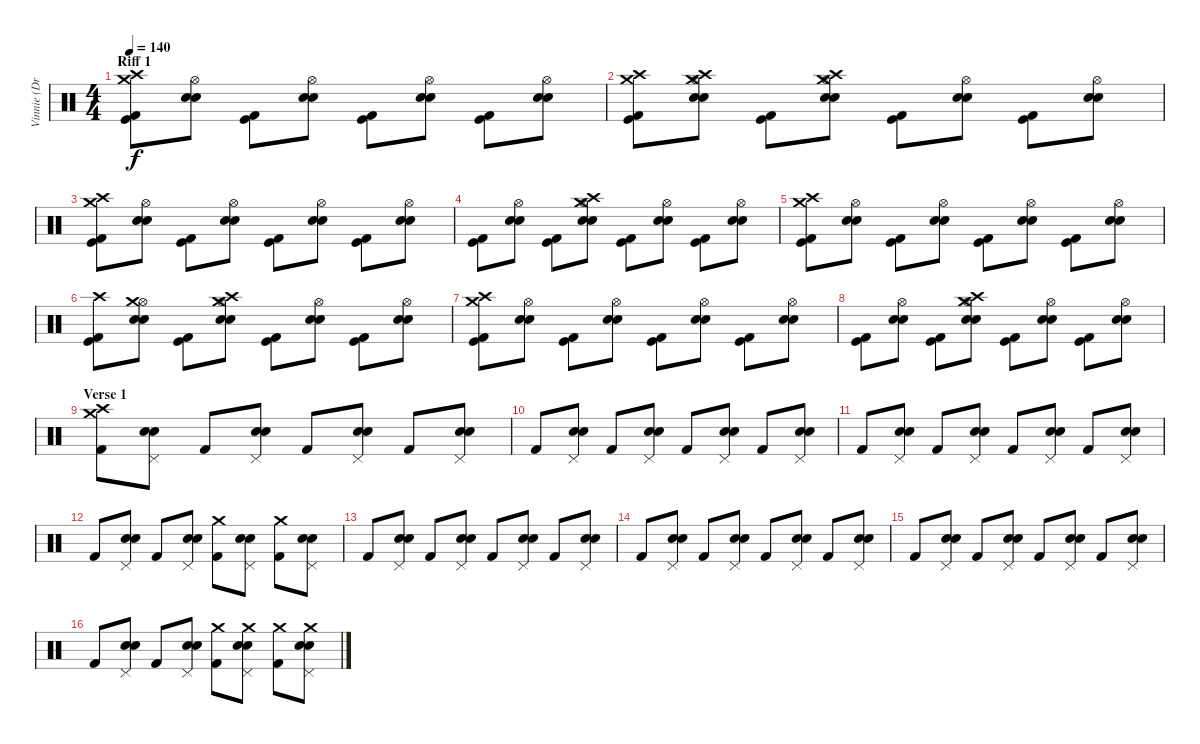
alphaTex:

\track ("Vinnie (Drums)" "Vinnie (Dr") {instrument percussion}
\staff {score}
\articulation defaults
\ts (4 4)
\section ("" "Riff 1")
\tempo 140
\clef neutral
\ks c
("Kick (hit) 2" "Kick (hit)" "Crash medium (hit)" "Crash high (hit)").8{dy f} ("Snare (hit) 2" "Electric Snare (hit)" "Hi-Hat (open)").8 ("Kick (hit) 2" "Kick (hit)").8 ("Snare (hit) 2" "Electric Snare (hit)" "Hi-Hat (open)").8 ("Kick (hit) 2" "Kick (hit)").8 ("Snare (hit) 2" "Electric Snare (hit)" "Hi-Hat (open)").8 ("Kick (hit) 2" "Kick (hit)").8 ("Snare (hit) 2" "Electric Snare (hit)" "Hi-Hat (open)").8 |
("Kick (hit) 2" "Kick (hit)" "Crash medium (hit)" "Crash high (hit)").8 ("Snare (hit) 2" "Electric Snare (hit)" "Hi-Hat (open)" "Crash high (hit)" "Crash medium (hit)").8 ("Kick (hit) 2" "Kick (hit)").8 ("Snare (hit) 2" "Electric Snare (hit)" "Hi-Hat (open)" "Crash medium (hit)" "Crash high (hit)").8 ("Kick (hit) 2" "Kick (hit)").8 ("Snare (hit) 2" "Electric Snare (hit)" "Hi-Hat (open)").8 ("Kick (hit) 2" "Kick (hit)").8 ("Snare (hit) 2" "Electric Snare (hit)" "Hi-Hat (open)").8 |
("Kick (hit) 2" "Kick (hit)" "Crash medium (hit)" "Crash high (hit)").8 ("Snare (hit) 2" "Electric Snare (hit)" "Hi-Hat (open)").8 ("Kick (hit) 2" "Kick (hit)").8 ("Snare (hit) 2" "Electric Snare (hit)" "Hi-Hat (open)").8 ("Kick (hit) 2" "Kick (hit)").8 ("Snare (hit) 2" "Electric Snare (hit)" "Hi-Hat (open)").8 ("Kick (hit) 2" "Kick (hit)").8 ("Snare (hit) 2" "Electric Snare (hit)" "Hi-Hat (open)").8 |
("Kick (hit) 2" "Kick (hit)").8 ("Snare (hit) 2" "Electric Snare (hit)" "Hi-Hat (open)").8 ("Kick (hit) 2" "Kick (hit)").8 ("Snare (hit) 2" "Electric Snare (hit)" "Hi-Hat (open)" "Crash medium (hit)" "Crash high (hit)").8 ("Kick (hit) 2" "Kick (hit)").8 ("Snare (hit) 2" "Electric Snare (hit)" "Hi-Hat (open)").8 ("Kick (hit) 2" "Kick (hit)").8 ("Snare (hit) 2" "Electric Snare (hit)" "Hi-Hat (open)").8 |
("Kick (hit) 2" "Kick (hit)" "Crash medium (hit)" "Crash high (hit)").8 ("Snare (hit) 2" "Electric Snare (hit)" "Hi-Hat (open)").8 ("Kick (hit) 2" "Kick (hit)").8 ("Snare (hit) 2" "Electric Snare (hit)" "Hi-Hat (open)").8 ("Kick (hit) 2" "Kick (hit)").8 ("Snare (hit) 2" "Electric Snare (hit)" "Hi-Hat (open)").8 ("Kick (hit) 2" "Kick (hit)").8 ("Snare (hit) 2" "Electric Snare (hit)" "Hi-Hat (open)").8 |
("Kick (hit) 2" "Kick (hit)" "Crash high (hit)").8 ("Snare (hit) 2" "Electric Snare (hit)" "Hi-Hat (open)" "Crash medium (hit)").8 ("Kick (hit) 2" "Kick (hit)").8 ("Snare (hit) 2" "Electric Snare (hit)" "Hi-Hat (open)" "Crash medium (hit)" "Crash high (hit)").8 ("Kick (hit) 2" "Kick (hit)").8 ("Snare (hit) 2" "Electric Snare (hit)" "Hi-Hat (open)").8 ("Kick (hit) 2" "Kick (hit)").8 ("Snare (hit) 2" "Electric Snare (hit)" "Hi-Hat (open)").8 |
("Kick (hit) 2" "Kick (hit)" "Crash medium (hit)" "Crash high (hit)").8 ("Snare (hit) 2" "Electric Snare (hit)" "Hi-Hat (open)").8 ("Kick (hit) 2" "Kick (hit)").8 ("Snare (hit) 2" "Electric Snare (hit)" "Hi-Hat (open)").8 ("Kick (hit) 2" "Kick (hit)").8 ("Snare (hit) 2" "Electric Snare (hit)" "Hi-Hat (open)").8 ("Kick (hit) 2" "Kick (hit)").8 ("Snare (hit) 2" "Electric Snare (hit)" "Hi-Hat (open)").8 |
("Kick (hit) 2" "Kick (hit)").8 ("Snare (hit) 2" "Electric Snare (hit)" "Hi-Hat (open)").8 ("Kick (hit) 2" "Kick (hit)").8 ("Snare (hit) 2" "Electric Snare (hit)" "Hi-Hat (open)" "Crash medium (hit)" "Crash high (hit)").8 ("Kick (hit) 2" "Kick (hit)").8 ("Snare (hit) 2" "Electric Snare (hit)" "Hi-Hat (open)").8 ("Kick (hit) 2" "Kick (hit)").8 ("Snare (hit) 2" "Electric Snare (hit)" "Hi-Hat (open)").8 |
\section ("" "Verse 1")
("Kick (hit) 2" "Crash medium (hit)" "Crash high (hit)").8 ("Snare (hit) 2" "Electric Snare (hit)" "Pedal Hi-Hat (hit)").8 "Kick (hit) 2".8 ("Snare (hit) 2" "Electric Snare (hit)" "Pedal Hi-Hat (hit)").8 "Kick (hit) 2".8 ("Snare (hit) 2" "Electric Snare (hit)" "Pedal Hi-Hat (hit)").8 "Kick (hit) 2".8 ("Snare (hit) 2" "Electric Snare (hit)" "Pedal Hi-Hat (hit)").8 |
"Kick (hit) 2".8 ("Snare (hit) 2" "Electric Snare (hit)" "Pedal Hi-Hat (hit)").8 "Kick (hit) 2".8 ("Snare (hit) 2" "Electric Snare (hit)" "Pedal Hi-Hat (hit)").8 "Kick (hit) 2".8 ("Snare (hit) 2" "Electric Snare (hit)" "Pedal Hi-Hat (hit)").8 "Kick (hit) 2".8 ("Snare (hit) 2" "Electric Snare (hit)" "Pedal Hi-Hat (hit)").8 |
"Kick (hit) 2".8 ("Snare (hit) 2" "Electric Snare (hit)" "Pedal Hi-Hat (hit)").8 "Kick (hit) 2".8 ("Snare (hit) 2" "Electric Snare (hit)" "Pedal Hi-Hat (hit)").8 "Kick (hit) 2".8 ("Snare (hit) 2" "Electric Snare (hit)" "Pedal Hi-Hat (hit)").8 "Kick (hit) 2".8 ("Snare (hit) 2" "Electric Snare (hit)" "Pedal Hi-Hat (hit)").8 |
"Kick (hit) 2".8 ("Snare (hit) 2" "Electric Snare (hit)" "Pedal Hi-Hat (hit)").8 "Kick (hit) 2".8 ("Snare (hit) 2" "Electric Snare (hit)" "Pedal Hi-Hat (hit)").8 ("Kick (hit) 2" "Crash medium (hit)").8 ("Snare (hit) 2" "Electric Snare (hit)" "Pedal Hi-Hat (hit)").8 ("Kick (hit) 2" "Crash medium (hit)").8 ("Snare (hit) 2" "Electric Snare (hit)" "Pedal Hi-Hat (hit)").8 |
"Kick (hit) 2".8 ("Snare (hit) 2" "Electric Snare (hit)" "Pedal Hi-Hat (hit)").8 "Kick (hit) 2".8 ("Snare (hit) 2" "Electric Snare (hit)" "Pedal Hi-Hat (hit)").8 "Kick (hit) 2".8 ("Snare (hit) 2" "Electric Snare (hit)" "Pedal Hi-Hat (hit)").8 "Kick (hit) 2".8 ("Snare (hit) 2" "Electric Snare (hit)" "Pedal Hi-Hat (hit)").8 |
"Kick (hit) 2".8 ("Snare (hit) 2" "Electric Snare (hit)" "Pedal Hi-Hat (hit)").8 "Kick (hit) 2".8 ("Snare (hit) 2" "Electric Snare (hit)" "Pedal Hi-Hat (hit)").8 "Kick (hit) 2".8 ("Snare (hit) 2" "Electric Snare (hit)" "Pedal Hi-Hat (hit)").8 "Kick (hit) 2".8 ("Snare (hit) 2" "Electric Snare (hit)" "Pedal Hi-Hat (hit)").8 |
"Kick (hit) 2".8 ("Snare (hit) 2" "Electric Snare (hit)" "Pedal Hi-Hat (hit)").8 "Kick (hit) 2".8 ("Snare (hit) 2" "Electric Snare (hit)" "Pedal Hi-Hat (hit)").8 "Kick (hit) 2".8 ("Snare (hit) 2" "Electric Snare (hit)" "Pedal Hi-Hat (hit)").8 "Kick (hit) 2".8 ("Snare (hit) 2" "Electric Snare (hit)" "Pedal Hi-Hat (hit)").8 |
"Kick (hit) 2".8 ("Snare (hit) 2" "Electric Snare (hit)" "Pedal Hi-Hat (hit)").8 "Kick (hit) 2".8 ("Snare (hit) 2" "Electric Snare (hit)" "Pedal Hi-Hat (hit)").8 ("Kick (hit) 2" "Crash medium (hit)").8 ("Snare (hit) 2" "Electric Snare (hit)" "Pedal Hi-Hat (hit)" "Crash medium (hit)").8 ("Kick (hit) 2" "Crash medium (hit)").8 ("Snare (hit) 2" "Electric Snare (hit)" "Pedal Hi-Hat (hit)" "Crash medium (hit)").8
